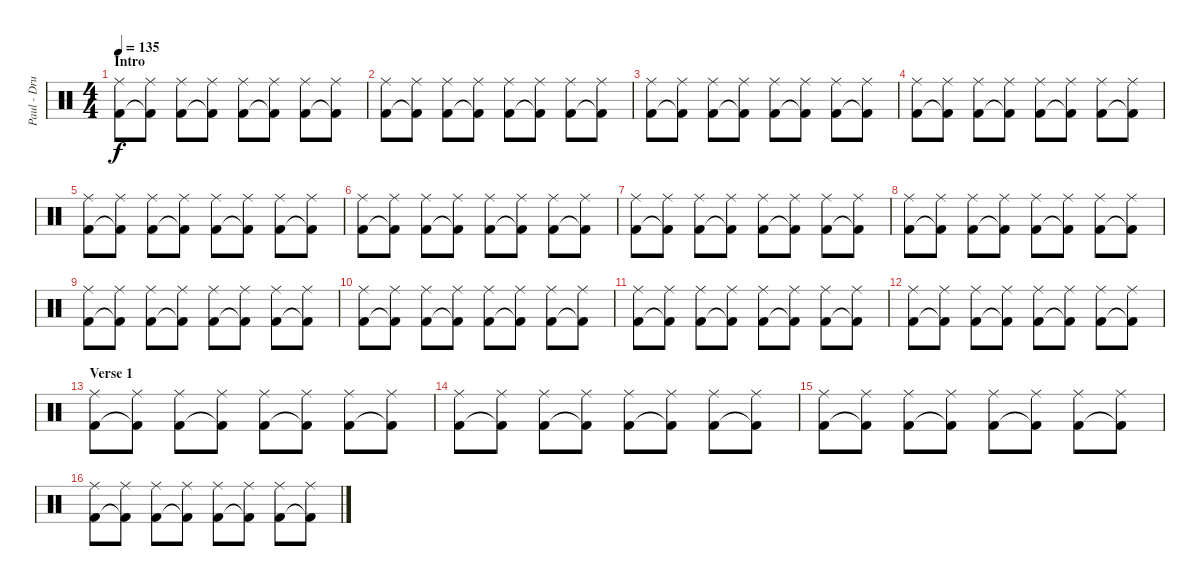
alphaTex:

\track ("Paul - Drums" "Paul - Dru") {instrument percussion}
\staff {score}
\articulation defaults
\ts (4 4)
\section ("" "Intro")
\tempo 135
\clef neutral
\ks c
("Kick (hit) 2" "Ride (middle)").8{dy f} ("Kick (hit) 2"{t} "Ride (middle)").8 ("Kick (hit) 2" "Ride (middle)").8 ("Kick (hit) 2"{t} "Ride (middle)").8 ("Kick (hit) 2" "Ride (middle)").8 ("Kick (hit) 2"{t} "Ride (middle)").8 ("Kick (hit) 2" "Ride (middle)").8 ("Kick (hit) 2"{t} "Ride (middle)").8 |
("Kick (hit) 2" "Ride (middle)").8 ("Kick (hit) 2"{t} "Ride (middle)").8 ("Kick (hit) 2" "Ride (middle)").8 ("Kick (hit) 2"{t} "Ride (middle)").8 ("Kick (hit) 2" "Ride (middle)").8 ("Kick (hit) 2"{t} "Ride (middle)").8 ("Kick (hit) 2" "Ride (middle)").8 ("Kick (hit) 2"{t} "Ride (middle)").8 |
("Kick (hit) 2" "Ride (middle)").8 ("Kick (hit) 2"{t} "Ride (middle)").8 ("Kick (hit) 2" "Ride (middle)").8 ("Kick (hit) 2"{t} "Ride (middle)").8 ("Kick (hit) 2" "Ride (middle)").8 ("Kick (hit) 2"{t} "Ride (middle)").8 ("Kick (hit) 2" "Ride (middle)").8 ("Kick (hit) 2"{t} "Ride (middle)").8 |
("Kick (hit) 2" "Ride (middle)").8 ("Kick (hit) 2"{t} "Ride (middle)").8 ("Kick (hit) 2" "Ride (middle)").8 ("Kick (hit) 2"{t} "Ride (middle)").8 ("Kick (hit) 2" "Ride (middle)").8 ("Kick (hit) 2"{t} "Ride (middle)").8 ("Kick (hit) 2" "Ride (middle)").8 ("Kick (hit) 2"{t} "Ride (middle)").8 |
("Kick (hit) 2" "Ride (middle)").8 ("Kick (hit) 2"{t} "Ride (middle)").8 ("Kick (hit) 2" "Ride (middle)").8 ("Kick (hit) 2"{t} "Ride (middle)").8 ("Kick (hit) 2" "Ride (middle)").8 ("Kick (hit) 2"{t} "Ride (middle)").8 ("Kick (hit) 2" "Ride (middle)").8 ("Kick (hit) 2"{t} "Ride (middle)").8 |
("Kick (hit) 2" "Ride (middle)").8 ("Kick (hit) 2"{t} "Ride (middle)").8 ("Kick (hit) 2" "Ride (middle)").8 ("Kick (hit) 2"{t} "Ride (middle)").8 ("Kick (hit) 2" "Ride (middle)").8 ("Kick (hit) 2"{t} "Ride (middle)").8 ("Kick (hit) 2" "Ride (middle)").8 ("Kick (hit) 2"{t} "Ride (middle)").8 |
("Kick (hit) 2" "Ride (middle)").8 ("Kick (hit) 2"{t} "Ride (middle)").8 ("Kick (hit) 2" "Ride (middle)").8 ("Kick (hit) 2"{t} "Ride (middle)").8 ("Kick (hit) 2" "Ride (middle)").8 ("Kick (hit) 2"{t} "Ride (middle)").8 ("Kick (hit) 2" "Ride (middle)").8 ("Kick (hit) 2"{t} "Ride (middle)").8 |
("Kick (hit) 2" "Ride (middle)").8 ("Kick (hit) 2"{t} "Ride (middle)").8 ("Kick (hit) 2" "Ride (middle)").8 ("Kick (hit) 2"{t} "Ride (middle)").8 ("Kick (hit) 2" "Ride (middle)").8 ("Kick (hit) 2"{t} "Ride (middle)").8 ("Kick (hit) 2" "Ride (middle)").8 ("Kick (hit) 2"{t} "Ride (middle)").8 |
("Kick (hit) 2" "Ride (middle)").8 ("Kick (hit) 2"{t} "Ride (middle)").8 ("Kick (hit) 2" "Ride (middle)").8 ("Kick (hit) 2"{t} "Ride (middle)").8 ("Kick (hit) 2" "Ride (middle)").8 ("Kick (hit) 2"{t} "Ride (middle)").8 ("Kick (hit) 2" "Ride (middle)").8 ("Kick (hit) 2"{t} "Ride (middle)").8 |
("Kick (hit) 2" "Ride (middle)").8 ("Kick (hit) 2"{t} "Ride (middle)").8 ("Kick (hit) 2" "Ride (middle)").8 ("Kick (hit) 2"{t} "Ride (middle)").8 ("Kick (hit) 2" "Ride (middle)").8 ("Kick (hit) 2"{t} "Ride (middle)").8 ("Kick (hit) 2" "Ride (middle)").8 ("Kick (hit) 2"{t} "Ride (middle)").8 |
("Kick (hit) 2" "Ride (middle)").8 ("Kick (hit) 2"{t} "Ride (middle)").8 ("Kick (hit) 2" "Ride (middle)").8 ("Kick (hit) 2"{t} "Ride (middle)").8 ("Kick (hit) 2" "Ride (middle)").8 ("Kick (hit) 2"{t} "Ride (middle)").8 ("Kick (hit) 2" "Ride (middle)").8 ("Kick (hit) 2"{t} "Ride (middle)").8 |
("Kick (hit) 2" "Ride (middle)").8 ("Kick (hit) 2"{t} "Ride (middle)").8 ("Kick (hit) 2" "Ride (middle)").8 ("Kick (hit) 2"{t} "Ride (middle)").8 ("Kick (hit) 2" "Ride (middle)").8 ("Kick (hit) 2"{t} "Ride (middle)").8 ("Kick (hit) 2" "Ride (middle)").8 ("Kick (hit) 2"{t} "Ride (middle)").8 |
\section ("" "Verse 1")
("Kick (hit) 2" "Ride (middle)").8 ("Kick (hit) 2"{t} "Ride (middle)").8 ("Kick (hit) 2" "Ride (middle)").8 ("Kick (hit) 2"{t} "Ride (middle)").8 ("Kick (hit) 2" "Ride (middle)").8 ("Kick (hit) 2"{t} "Ride (middle)").8 ("Kick (hit) 2" "Ride (middle)").8 ("Kick (hit) 2"{t} "Ride (middle)").8 |
("Kick (hit) 2" "Ride (middle)").8 ("Kick (hit) 2"{t} "Ride (middle)").8 ("Kick (hit) 2" "Ride (middle)").8 ("Kick (hit) 2"{t} "Ride (middle)").8 ("Kick (hit) 2" "Ride (middle)").8 ("Kick (hit) 2"{t} "Ride (middle)").8 ("Kick (hit) 2" "Ride (middle)").8 ("Kick (hit) 2"{t} "Ride (middle)").8 |
("Kick (hit) 2" "Ride (middle)").8 ("Kick (hit) 2"{t} "Ride (middle)").8 ("Kick (hit) 2" "Ride (middle)").8 ("Kick (hit) 2"{t} "Ride (middle)").8 ("Kick (hit) 2" "Ride (middle)").8 ("Kick (hit) 2"{t} "Ride (middle)").8 ("Kick (hit) 2" "Ride (middle)").8 ("Kick (hit) 2"{t} "Ride (middle)").8 |
("Kick (hit) 2" "Ride (middle)").8 ("Kick (hit) 2"{t} "Ride (middle)").8 ("Kick (hit) 2" "Ride (middle)").8 ("Kick (hit) 2"{t} "Ride (middle)").8 ("Kick (hit) 2" "Ride (middle)").8 ("Kick (hit) 2"{t} "Ride (middle)").8 ("Kick (hit) 2" "Ride (middle)").8 ("Kick (hit) 2"{t} "Ride (middle)").8
